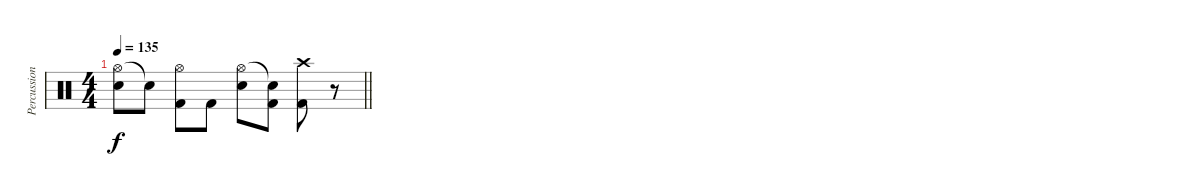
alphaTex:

\track ("Percussion" "Percussion") {instrument percussion}
\staff {score}
\articulation defaults
\ts (4 4)
\tempo 135
\clef neutral
\barLineRight lightlight
\ks c
("Hi-Hat (open)" "Electric Snare (hit)").8{dy f} "Electric Snare (hit)"{t}.8 ("Hi-Hat (open)" "Kick (hit) 2").8 "Kick (hit) 2".8 ("Hi-Hat (open)" "Electric Snare (hit)").8{volume 1} ("Electric Snare (hit)"{t} "Kick (hit) 2").8 ("Crash high (hit)" "Kick (hit) 2").8 r.8
